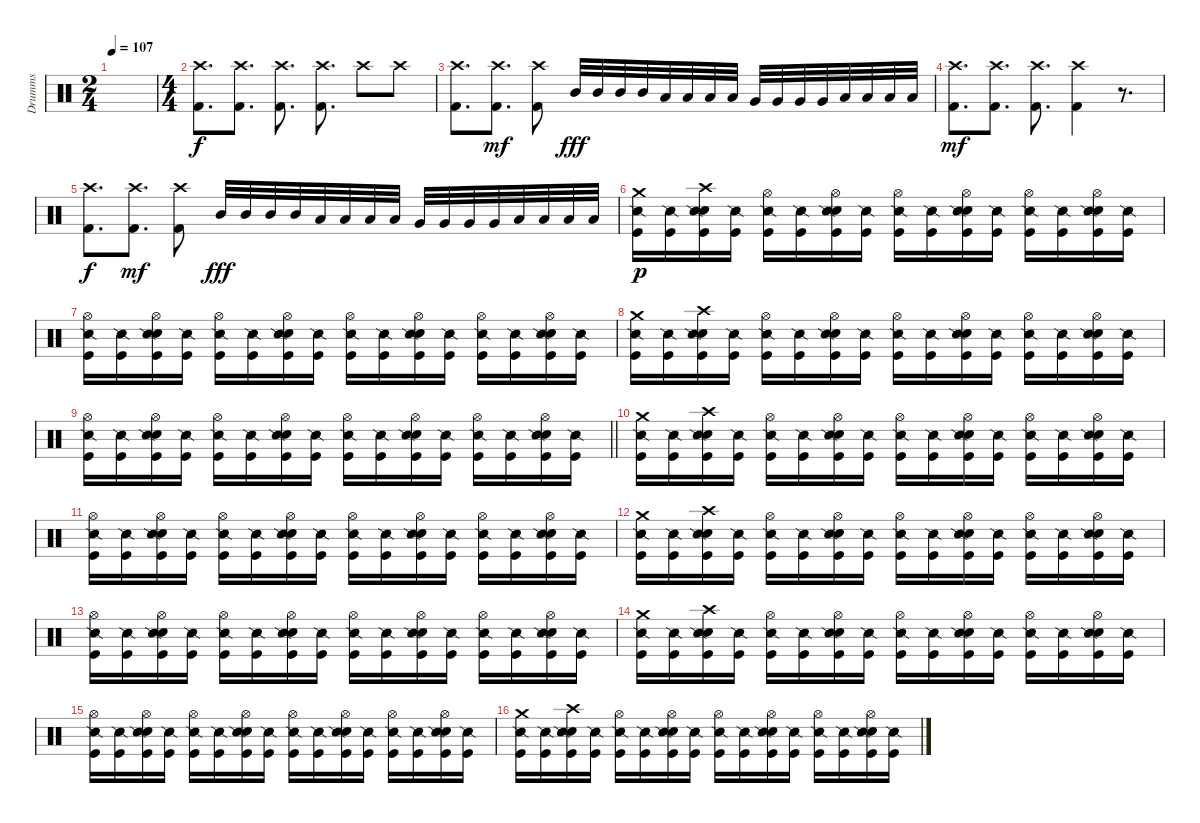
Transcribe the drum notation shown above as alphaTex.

\track ("Drumms" "Drumms") {instrument percussion}
\staff {score}
\articulation defaults
\ts (2 4)
\tempo 107
\clef neutral
\ks c
|
\ts (4 4)
("Crash high (hit)" "Kick (hit) 2").8{d} ("Crash high (hit)" "Kick (hit) 2").8{d} ("Crash high (hit)" "Kick (hit) 2").8{d} ("Crash high (hit)" "Kick (hit) 2").8{d} "Crash high (hit)".8 "Crash high (hit)".8 |
("Crash high (hit)" "Kick (hit) 2").8{d dy f} ("Crash high (hit)" "Kick (hit) 2").8{d dy mf} ("Crash high (hit)" "Kick (hit) 2").8 "Mid Tom (hit)".32{dy fff} "Mid Tom (hit)".32 "Mid Tom (hit)".32 "Mid Tom (hit)".32 "Low Tom (hit)".32 "Low Tom (hit)".32 "Low Tom (hit)".32 "Low Tom (hit)".32 "Very Low Tom (hit)".32 "Very Low Tom (hit)".32 "Very Low Tom (hit)".32 "Very Low Tom (hit)".32 "Low Floor Tom (hit)".32 "Low Floor Tom (hit)".32 "Low Floor Tom (hit)".32 "Low Floor Tom (hit)".32 |
("Crash high (hit)" "Kick (hit) 2").8{d dy mf} ("Crash high (hit)" "Kick (hit) 2").8{d} ("Crash high (hit)" "Kick (hit) 2").8{d} ("Crash high (hit)" "Kick (hit) 2").4 r.8{d} |
("Crash high (hit)" "Kick (hit) 2").8{d dy f} ("Crash high (hit)" "Kick (hit) 2").8{d dy mf} ("Crash high (hit)" "Kick (hit) 2").8 "Mid Tom (hit)".32{dy fff} "Mid Tom (hit)".32 "Mid Tom (hit)".32 "Mid Tom (hit)".32 "Low Tom (hit)".32 "Low Tom (hit)".32 "Low Tom (hit)".32 "Low Tom (hit)".32 "Very Low Tom (hit)".32 "Very Low Tom (hit)".32 "Very Low Tom (hit)".32 "Very Low Tom (hit)".32 "Low Floor Tom (hit)".32 "Low Floor Tom (hit)".32 "Low Floor Tom (hit)".32 "Low Floor Tom (hit)".32 |
("Crash medium (hit)" "Snare (side stick) 2" "Kick (hit)").16{dy p} ("Snare (side stick) 2" "Kick (hit)").16 ("Crash high (hit)" "Electric Snare (hit)" "Snare (side stick) 2" "Kick (hit)").16 ("Snare (side stick) 2" "Kick (hit)").16 ("Hi-Hat (open)" "Snare (side stick) 2" "Kick (hit)").16 ("Snare (side stick) 2" "Kick (hit)").16 ("Hi-Hat (open)" "Electric Snare (hit)" "Snare (side stick) 2" "Kick (hit)").16 ("Snare (side stick) 2" "Kick (hit)").16 ("Hi-Hat (open)" "Snare (side stick) 2" "Kick (hit)").16 ("Snare (side stick) 2" "Kick (hit)").16 ("Hi-Hat (open)" "Electric Snare (hit)" "Snare (side stick) 2" "Kick (hit)").16 ("Snare (side stick) 2" "Kick (hit)").16 ("Hi-Hat (open)" "Snare (side stick) 2" "Kick (hit)").16 ("Snare (side stick) 2" "Kick (hit)").16 ("Hi-Hat (open)" "Electric Snare (hit)" "Snare (side stick) 2" "Kick (hit)").16 ("Snare (side stick) 2" "Kick (hit)").16 |
("Hi-Hat (open)" "Snare (side stick) 2" "Kick (hit)").16 ("Snare (side stick) 2" "Kick (hit)").16 ("Hi-Hat (open)" "Electric Snare (hit)" "Snare (side stick) 2" "Kick (hit)").16 ("Snare (side stick) 2" "Kick (hit)").16 ("Hi-Hat (open)" "Snare (side stick) 2" "Kick (hit)").16 ("Snare (side stick) 2" "Kick (hit)").16 ("Hi-Hat (open)" "Electric Snare (hit)" "Snare (side stick) 2" "Kick (hit)").16 ("Snare (side stick) 2" "Kick (hit)").16 ("Hi-Hat (open)" "Snare (side stick) 2" "Kick (hit)").16 ("Snare (side stick) 2" "Kick (hit)").16 ("Hi-Hat (open)" "Electric Snare (hit)" "Snare (side stick) 2" "Kick (hit)").16 ("Snare (side stick) 2" "Kick (hit)").16 ("Hi-Hat (open)" "Snare (side stick) 2" "Kick (hit)").16 ("Snare (side stick) 2" "Kick (hit)").16 ("Hi-Hat (open)" "Electric Snare (hit)" "Snare (side stick) 2" "Kick (hit)").16 ("Snare (side stick) 2" "Kick (hit)").16 |
("Crash medium (hit)" "Snare (side stick) 2" "Kick (hit)").16 ("Snare (side stick) 2" "Kick (hit)").16 ("Crash high (hit)" "Electric Snare (hit)" "Snare (side stick) 2" "Kick (hit)").16 ("Snare (side stick) 2" "Kick (hit)").16 ("Hi-Hat (open)" "Snare (side stick) 2" "Kick (hit)").16 ("Snare (side stick) 2" "Kick (hit)").16 ("Hi-Hat (open)" "Electric Snare (hit)" "Snare (side stick) 2" "Kick (hit)").16 ("Snare (side stick) 2" "Kick (hit)").16 ("Hi-Hat (open)" "Snare (side stick) 2" "Kick (hit)").16 ("Snare (side stick) 2" "Kick (hit)").16 ("Hi-Hat (open)" "Electric Snare (hit)" "Snare (side stick) 2" "Kick (hit)").16 ("Snare (side stick) 2" "Kick (hit)").16 ("Hi-Hat (open)" "Snare (side stick) 2" "Kick (hit)").16 ("Snare (side stick) 2" "Kick (hit)").16 ("Hi-Hat (open)" "Electric Snare (hit)" "Snare (side stick) 2" "Kick (hit)").16 ("Snare (side stick) 2" "Kick (hit)").16 |
\barLineRight lightlight
("Hi-Hat (open)" "Snare (side stick) 2" "Kick (hit)").16 ("Snare (side stick) 2" "Kick (hit)").16 ("Hi-Hat (open)" "Electric Snare (hit)" "Snare (side stick) 2" "Kick (hit)").16 ("Snare (side stick) 2" "Kick (hit)").16 ("Hi-Hat (open)" "Snare (side stick) 2" "Kick (hit)").16 ("Snare (side stick) 2" "Kick (hit)").16 ("Hi-Hat (open)" "Electric Snare (hit)" "Snare (side stick) 2" "Kick (hit)").16 ("Snare (side stick) 2" "Kick (hit)").16 ("Hi-Hat (open)" "Snare (side stick) 2" "Kick (hit)").16 ("Snare (side stick) 2" "Kick (hit)").16 ("Hi-Hat (open)" "Electric Snare (hit)" "Snare (side stick) 2" "Kick (hit)").16 ("Snare (side stick) 2" "Kick (hit)").16 ("Hi-Hat (open)" "Snare (side stick) 2" "Kick (hit)").16 ("Snare (side stick) 2" "Kick (hit)").16 ("Hi-Hat (open)" "Electric Snare (hit)" "Snare (side stick) 2" "Kick (hit)").16 ("Snare (side stick) 2" "Kick (hit)").16 |
\section ("" "")
("Crash medium (hit)" "Snare (side stick) 2" "Kick (hit)").16 ("Snare (side stick) 2" "Kick (hit)").16 ("Crash high (hit)" "Electric Snare (hit)" "Snare (side stick) 2" "Kick (hit)").16 ("Snare (side stick) 2" "Kick (hit)").16 ("Hi-Hat (open)" "Snare (side stick) 2" "Kick (hit)").16 ("Snare (side stick) 2" "Kick (hit)").16 ("Hi-Hat (open)" "Electric Snare (hit)" "Snare (side stick) 2" "Kick (hit)").16 ("Snare (side stick) 2" "Kick (hit)").16 ("Hi-Hat (open)" "Snare (side stick) 2" "Kick (hit)").16 ("Snare (side stick) 2" "Kick (hit)").16 ("Hi-Hat (open)" "Electric Snare (hit)" "Snare (side stick) 2" "Kick (hit)").16 ("Snare (side stick) 2" "Kick (hit)").16 ("Hi-Hat (open)" "Snare (side stick) 2" "Kick (hit)").16 ("Snare (side stick) 2" "Kick (hit)").16 ("Hi-Hat (open)" "Electric Snare (hit)" "Snare (side stick) 2" "Kick (hit)").16 ("Snare (side stick) 2" "Kick (hit)").16 |
("Hi-Hat (open)" "Snare (side stick) 2" "Kick (hit)").16 ("Snare (side stick) 2" "Kick (hit)").16 ("Hi-Hat (open)" "Electric Snare (hit)" "Snare (side stick) 2" "Kick (hit)").16 ("Snare (side stick) 2" "Kick (hit)").16 ("Hi-Hat (open)" "Snare (side stick) 2" "Kick (hit)").16 ("Snare (side stick) 2" "Kick (hit)").16 ("Hi-Hat (open)" "Electric Snare (hit)" "Snare (side stick) 2" "Kick (hit)").16 ("Snare (side stick) 2" "Kick (hit)").16 ("Hi-Hat (open)" "Snare (side stick) 2" "Kick (hit)").16 ("Snare (side stick) 2" "Kick (hit)").16 ("Hi-Hat (open)" "Electric Snare (hit)" "Snare (side stick) 2" "Kick (hit)").16 ("Snare (side stick) 2" "Kick (hit)").16 ("Hi-Hat (open)" "Snare (side stick) 2" "Kick (hit)").16 ("Snare (side stick) 2" "Kick (hit)").16 ("Hi-Hat (open)" "Electric Snare (hit)" "Snare (side stick) 2" "Kick (hit)").16 ("Snare (side stick) 2" "Kick (hit)").16 |
("Crash medium (hit)" "Snare (side stick) 2" "Kick (hit)").16 ("Snare (side stick) 2" "Kick (hit)").16 ("Crash high (hit)" "Electric Snare (hit)" "Snare (side stick) 2" "Kick (hit)").16 ("Snare (side stick) 2" "Kick (hit)").16 ("Hi-Hat (open)" "Snare (side stick) 2" "Kick (hit)").16 ("Snare (side stick) 2" "Kick (hit)").16 ("Hi-Hat (open)" "Electric Snare (hit)" "Snare (side stick) 2" "Kick (hit)").16 ("Snare (side stick) 2" "Kick (hit)").16 ("Hi-Hat (open)" "Snare (side stick) 2" "Kick (hit)").16 ("Snare (side stick) 2" "Kick (hit)").16 ("Hi-Hat (open)" "Electric Snare (hit)" "Snare (side stick) 2" "Kick (hit)").16 ("Snare (side stick) 2" "Kick (hit)").16 ("Hi-Hat (open)" "Snare (side stick) 2" "Kick (hit)").16 ("Snare (side stick) 2" "Kick (hit)").16 ("Hi-Hat (open)" "Electric Snare (hit)" "Snare (side stick) 2" "Kick (hit)").16 ("Snare (side stick) 2" "Kick (hit)").16 |
("Hi-Hat (open)" "Snare (side stick) 2" "Kick (hit)").16 ("Snare (side stick) 2" "Kick (hit)").16 ("Hi-Hat (open)" "Electric Snare (hit)" "Snare (side stick) 2" "Kick (hit)").16 ("Snare (side stick) 2" "Kick (hit)").16 ("Hi-Hat (open)" "Snare (side stick) 2" "Kick (hit)").16 ("Snare (side stick) 2" "Kick (hit)").16 ("Hi-Hat (open)" "Electric Snare (hit)" "Snare (side stick) 2" "Kick (hit)").16 ("Snare (side stick) 2" "Kick (hit)").16 ("Hi-Hat (open)" "Snare (side stick) 2" "Kick (hit)").16 ("Snare (side stick) 2" "Kick (hit)").16 ("Hi-Hat (open)" "Electric Snare (hit)" "Snare (side stick) 2" "Kick (hit)").16 ("Snare (side stick) 2" "Kick (hit)").16 ("Hi-Hat (open)" "Snare (side stick) 2" "Kick (hit)").16 ("Snare (side stick) 2" "Kick (hit)").16 ("Hi-Hat (open)" "Electric Snare (hit)" "Snare (side stick) 2" "Kick (hit)").16 ("Snare (side stick) 2" "Kick (hit)").16 |
("Crash medium (hit)" "Snare (side stick) 2" "Kick (hit)").16 ("Snare (side stick) 2" "Kick (hit)").16 ("Crash high (hit)" "Electric Snare (hit)" "Snare (side stick) 2" "Kick (hit)").16 ("Snare (side stick) 2" "Kick (hit)").16 ("Hi-Hat (open)" "Snare (side stick) 2" "Kick (hit)").16 ("Snare (side stick) 2" "Kick (hit)").16 ("Hi-Hat (open)" "Electric Snare (hit)" "Snare (side stick) 2" "Kick (hit)").16 ("Snare (side stick) 2" "Kick (hit)").16 ("Hi-Hat (open)" "Snare (side stick) 2" "Kick (hit)").16 ("Snare (side stick) 2" "Kick (hit)").16 ("Hi-Hat (open)" "Electric Snare (hit)" "Snare (side stick) 2" "Kick (hit)").16 ("Snare (side stick) 2" "Kick (hit)").16 ("Hi-Hat (open)" "Snare (side stick) 2" "Kick (hit)").16 ("Snare (side stick) 2" "Kick (hit)").16 ("Hi-Hat (open)" "Electric Snare (hit)" "Snare (side stick) 2" "Kick (hit)").16 ("Snare (side stick) 2" "Kick (hit)").16 |
("Hi-Hat (open)" "Snare (side stick) 2" "Kick (hit)").16 ("Snare (side stick) 2" "Kick (hit)").16 ("Hi-Hat (open)" "Electric Snare (hit)" "Snare (side stick) 2" "Kick (hit)").16 ("Snare (side stick) 2" "Kick (hit)").16 ("Hi-Hat (open)" "Snare (side stick) 2" "Kick (hit)").16 ("Snare (side stick) 2" "Kick (hit)").16 ("Hi-Hat (open)" "Electric Snare (hit)" "Snare (side stick) 2" "Kick (hit)").16 ("Snare (side stick) 2" "Kick (hit)").16 ("Hi-Hat (open)" "Snare (side stick) 2" "Kick (hit)").16 ("Snare (side stick) 2" "Kick (hit)").16 ("Hi-Hat (open)" "Electric Snare (hit)" "Snare (side stick) 2" "Kick (hit)").16 ("Snare (side stick) 2" "Kick (hit)").16 ("Hi-Hat (open)" "Snare (side stick) 2" "Kick (hit)").16 ("Snare (side stick) 2" "Kick (hit)").16 ("Hi-Hat (open)" "Electric Snare (hit)" "Snare (side stick) 2" "Kick (hit)").16 ("Snare (side stick) 2" "Kick (hit)").16 |
("Crash medium (hit)" "Snare (side stick) 2" "Kick (hit)").16 ("Snare (side stick) 2" "Kick (hit)").16 ("Crash high (hit)" "Electric Snare (hit)" "Snare (side stick) 2" "Kick (hit)").16 ("Snare (side stick) 2" "Kick (hit)").16 ("Hi-Hat (open)" "Snare (side stick) 2" "Kick (hit)").16 ("Snare (side stick) 2" "Kick (hit)").16 ("Hi-Hat (open)" "Electric Snare (hit)" "Snare (side stick) 2" "Kick (hit)").16 ("Snare (side stick) 2" "Kick (hit)").16 ("Hi-Hat (open)" "Snare (side stick) 2" "Kick (hit)").16 ("Snare (side stick) 2" "Kick (hit)").16 ("Hi-Hat (open)" "Electric Snare (hit)" "Snare (side stick) 2" "Kick (hit)").16 ("Snare (side stick) 2" "Kick (hit)").16 ("Hi-Hat (open)" "Snare (side stick) 2" "Kick (hit)").16 ("Snare (side stick) 2" "Kick (hit)").16 ("Hi-Hat (open)" "Electric Snare (hit)" "Snare (side stick) 2" "Kick (hit)").16 ("Snare (side stick) 2" "Kick (hit)").16
